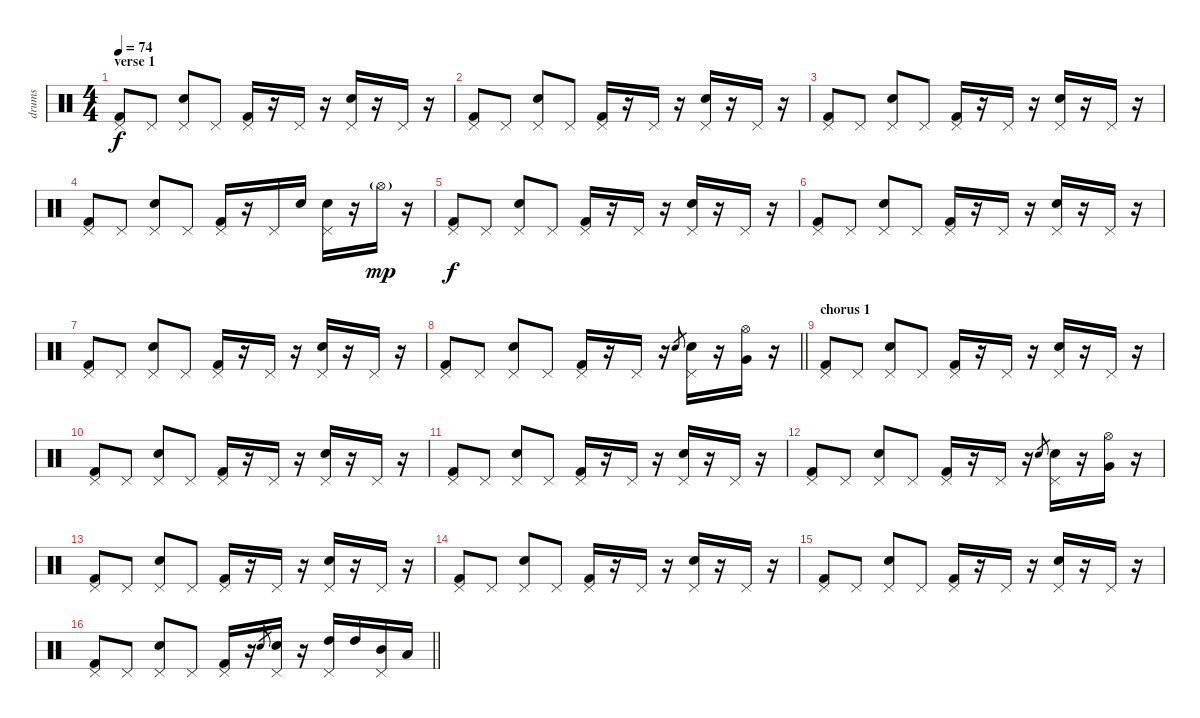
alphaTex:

\track ("drums" "drums") {instrument percussion}
\staff {score}
\articulation defaults
\ts (4 4)
\section ("" "verse 1")
\tempo 74
\clef neutral
\ks c
("Kick (hit) 2" "Pedal Hi-Hat (hit)").8{dy f} "Pedal Hi-Hat (hit)".8 ("Electric Snare (hit)" "Pedal Hi-Hat (hit)").8 "Pedal Hi-Hat (hit)".8 ("Kick (hit) 2" "Pedal Hi-Hat (hit)").16 r.16 "Pedal Hi-Hat (hit)".16 r.16 ("Electric Snare (hit)" "Pedal Hi-Hat (hit)").16 r.16 "Pedal Hi-Hat (hit)".16 r.16 |
("Kick (hit) 2" "Pedal Hi-Hat (hit)").8 "Pedal Hi-Hat (hit)".8 ("Electric Snare (hit)" "Pedal Hi-Hat (hit)").8 "Pedal Hi-Hat (hit)".8 ("Kick (hit) 2" "Pedal Hi-Hat (hit)").16 r.16 "Pedal Hi-Hat (hit)".16 r.16 ("Electric Snare (hit)" "Pedal Hi-Hat (hit)").16 r.16 "Pedal Hi-Hat (hit)".16 r.16 |
("Kick (hit) 2" "Pedal Hi-Hat (hit)").8 "Pedal Hi-Hat (hit)".8 ("Electric Snare (hit)" "Pedal Hi-Hat (hit)").8 "Pedal Hi-Hat (hit)".8 ("Kick (hit) 2" "Pedal Hi-Hat (hit)").16 r.16 "Pedal Hi-Hat (hit)".16 r.16 ("Electric Snare (hit)" "Pedal Hi-Hat (hit)").16 r.16 "Pedal Hi-Hat (hit)".16 r.16 |
("Kick (hit) 2" "Pedal Hi-Hat (hit)").8 "Pedal Hi-Hat (hit)".8 ("Electric Snare (hit)" "Pedal Hi-Hat (hit)").8 "Pedal Hi-Hat (hit)".8 ("Kick (hit) 2" "Pedal Hi-Hat (hit)").16 r.16 "Pedal Hi-Hat (hit)".16 "Electric Snare (hit)".16 ("Electric Snare (hit)" "Pedal Hi-Hat (hit)").16 r.16 "Hi-Hat (open)"{g}.16{dy mp} r.16 |
("Kick (hit) 2" "Pedal Hi-Hat (hit)").8{dy f} "Pedal Hi-Hat (hit)".8 ("Electric Snare (hit)" "Pedal Hi-Hat (hit)").8 "Pedal Hi-Hat (hit)".8 ("Kick (hit) 2" "Pedal Hi-Hat (hit)").16 r.16 "Pedal Hi-Hat (hit)".16 r.16 ("Electric Snare (hit)" "Pedal Hi-Hat (hit)").16 r.16 "Pedal Hi-Hat (hit)".16 r.16 |
("Kick (hit) 2" "Pedal Hi-Hat (hit)").8 "Pedal Hi-Hat (hit)".8 ("Electric Snare (hit)" "Pedal Hi-Hat (hit)").8 "Pedal Hi-Hat (hit)".8 ("Kick (hit) 2" "Pedal Hi-Hat (hit)").16 r.16 "Pedal Hi-Hat (hit)".16 r.16 ("Electric Snare (hit)" "Pedal Hi-Hat (hit)").16 r.16 "Pedal Hi-Hat (hit)".16 r.16 |
("Kick (hit) 2" "Pedal Hi-Hat (hit)").8 "Pedal Hi-Hat (hit)".8 ("Electric Snare (hit)" "Pedal Hi-Hat (hit)").8 "Pedal Hi-Hat (hit)".8 ("Kick (hit) 2" "Pedal Hi-Hat (hit)").16 r.16 "Pedal Hi-Hat (hit)".16 r.16 ("Electric Snare (hit)" "Pedal Hi-Hat (hit)").16 r.16 "Pedal Hi-Hat (hit)".16 r.16 |
\barLineRight lightlight
("Kick (hit) 2" "Pedal Hi-Hat (hit)").8 "Pedal Hi-Hat (hit)".8 ("Electric Snare (hit)" "Pedal Hi-Hat (hit)").8 "Pedal Hi-Hat (hit)".8 ("Kick (hit) 2" "Pedal Hi-Hat (hit)").16 r.16 "Pedal Hi-Hat (hit)".16 r.16 "Electric Snare (hit)".8{gr} ("Electric Snare (hit)" "Pedal Hi-Hat (hit)").16 r.16 ("Very Low Tom (hit)" "Hi-Hat (open)").16 r.16 |
\section ("" "chorus 1")
("Kick (hit) 2" "Pedal Hi-Hat (hit)").8 "Pedal Hi-Hat (hit)".8 ("Electric Snare (hit)" "Pedal Hi-Hat (hit)").8 "Pedal Hi-Hat (hit)".8 ("Kick (hit) 2" "Pedal Hi-Hat (hit)").16 r.16 "Pedal Hi-Hat (hit)".16 r.16 ("Electric Snare (hit)" "Pedal Hi-Hat (hit)").16 r.16 "Pedal Hi-Hat (hit)".16 r.16 |
("Kick (hit) 2" "Pedal Hi-Hat (hit)").8 "Pedal Hi-Hat (hit)".8 ("Electric Snare (hit)" "Pedal Hi-Hat (hit)").8 "Pedal Hi-Hat (hit)".8 ("Kick (hit) 2" "Pedal Hi-Hat (hit)").16 r.16 "Pedal Hi-Hat (hit)".16 r.16 ("Electric Snare (hit)" "Pedal Hi-Hat (hit)").16 r.16 "Pedal Hi-Hat (hit)".16 r.16 |
("Kick (hit) 2" "Pedal Hi-Hat (hit)").8 "Pedal Hi-Hat (hit)".8 ("Electric Snare (hit)" "Pedal Hi-Hat (hit)").8 "Pedal Hi-Hat (hit)".8 ("Kick (hit) 2" "Pedal Hi-Hat (hit)").16 r.16 "Pedal Hi-Hat (hit)".16 r.16 ("Electric Snare (hit)" "Pedal Hi-Hat (hit)").16 r.16 "Pedal Hi-Hat (hit)".16 r.16 |
("Kick (hit) 2" "Pedal Hi-Hat (hit)").8 "Pedal Hi-Hat (hit)".8 ("Electric Snare (hit)" "Pedal Hi-Hat (hit)").8 "Pedal Hi-Hat (hit)".8 ("Kick (hit) 2" "Pedal Hi-Hat (hit)").16 r.16 "Pedal Hi-Hat (hit)".16 r.16 "Electric Snare (hit)".8{gr} ("Electric Snare (hit)" "Pedal Hi-Hat (hit)").16 r.16 ("Very Low Tom (hit)" "Hi-Hat (open)").16 r.16 |
("Kick (hit) 2" "Pedal Hi-Hat (hit)").8 "Pedal Hi-Hat (hit)".8 ("Electric Snare (hit)" "Pedal Hi-Hat (hit)").8 "Pedal Hi-Hat (hit)".8 ("Kick (hit) 2" "Pedal Hi-Hat (hit)").16 r.16 "Pedal Hi-Hat (hit)".16 r.16 ("Electric Snare (hit)" "Pedal Hi-Hat (hit)").16 r.16 "Pedal Hi-Hat (hit)".16 r.16 |
("Kick (hit) 2" "Pedal Hi-Hat (hit)").8 "Pedal Hi-Hat (hit)".8 ("Electric Snare (hit)" "Pedal Hi-Hat (hit)").8 "Pedal Hi-Hat (hit)".8 ("Kick (hit) 2" "Pedal Hi-Hat (hit)").16 r.16 "Pedal Hi-Hat (hit)".16 r.16 ("Electric Snare (hit)" "Pedal Hi-Hat (hit)").16 r.16 "Pedal Hi-Hat (hit)".16 r.16 |
("Kick (hit) 2" "Pedal Hi-Hat (hit)").8 "Pedal Hi-Hat (hit)".8 ("Electric Snare (hit)" "Pedal Hi-Hat (hit)").8 "Pedal Hi-Hat (hit)".8 ("Kick (hit) 2" "Pedal Hi-Hat (hit)").16 r.16 "Pedal Hi-Hat (hit)".16 r.16 ("Electric Snare (hit)" "Pedal Hi-Hat (hit)").16 r.16 "Pedal Hi-Hat (hit)".16 r.16 |
\barLineRight lightlight
("Kick (hit) 2" "Pedal Hi-Hat (hit)").8 "Pedal Hi-Hat (hit)".8 ("Electric Snare (hit)" "Pedal Hi-Hat (hit)").8 "Pedal Hi-Hat (hit)".8 ("Kick (hit) 2" "Pedal Hi-Hat (hit)").16 r.16 "Electric Snare (hit)".8{gr} ("Electric Snare (hit)" "Pedal Hi-Hat (hit)").16 r.16 ("High Tom (hit)" "Pedal Hi-Hat (hit)").16 "High Tom (hit)".16 ("Mid Tom (hit)" "Pedal Hi-Hat (hit)").16 "Low Tom (hit)".16
